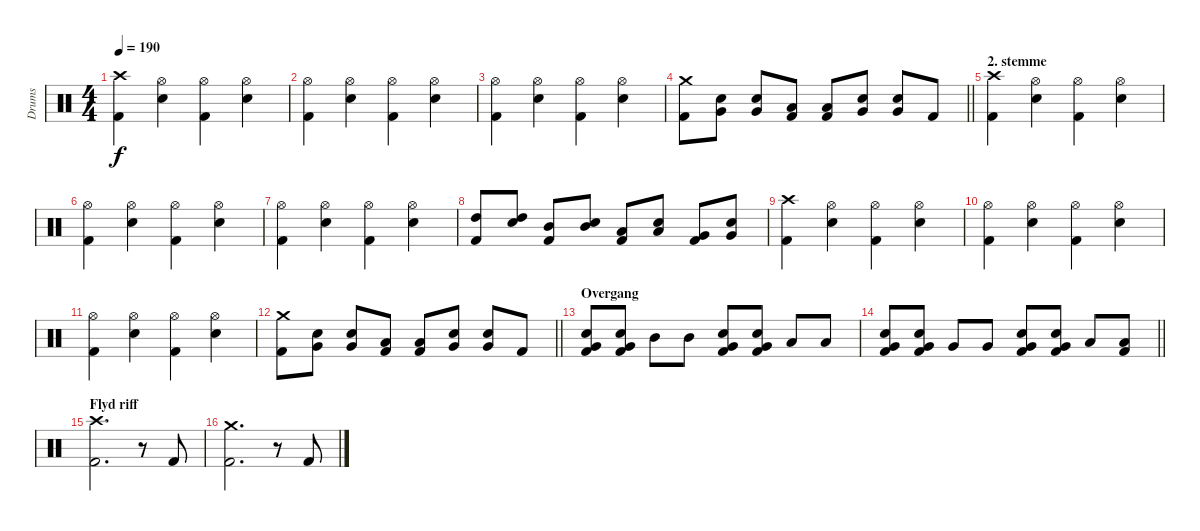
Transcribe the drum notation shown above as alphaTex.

\track ("Drums" "Drums") {instrument percussion}
\staff {score}
\articulation defaults
\ts (4 4)
\tempo 190
\clef neutral
\ks c
("Crash high (hit)" "Kick (hit) 2").4{dy f} ("Hi-Hat (open)" "Snare (hit) 2").4 ("Hi-Hat (open)" "Kick (hit) 2").4 ("Hi-Hat (open)" "Snare (hit) 2").4 |
("Hi-Hat (open)" "Kick (hit) 2").4 ("Hi-Hat (open)" "Snare (hit) 2").4 ("Hi-Hat (open)" "Kick (hit) 2").4 ("Hi-Hat (open)" "Snare (hit) 2").4 |
("Hi-Hat (open)" "Kick (hit) 2").4 ("Hi-Hat (open)" "Snare (hit) 2").4 ("Hi-Hat (open)" "Kick (hit) 2").4 ("Hi-Hat (open)" "Snare (hit) 2").4 |
\barLineRight lightlight
("Crash medium (hit)" "Kick (hit) 2").8 ("Very Low Tom (hit)" "Snare (hit) 2").8 ("Very Low Tom (hit)" "Snare (hit) 2").8 ("Low Floor Tom (hit)" "Kick (hit) 2").8 ("Low Floor Tom (hit)" "Kick (hit) 2").8 ("Very Low Tom (hit)" "Snare (hit) 2").8 ("Very Low Tom (hit)" "Snare (hit) 2").8 "Kick (hit) 2".8 |
\section ("" "2. stemme")
("Crash high (hit)" "Kick (hit) 2").4 ("Hi-Hat (open)" "Snare (hit) 2").4 ("Hi-Hat (open)" "Kick (hit) 2").4 ("Hi-Hat (open)" "Snare (hit) 2").4 |
("Hi-Hat (open)" "Kick (hit) 2").4 ("Hi-Hat (open)" "Snare (hit) 2").4 ("Hi-Hat (open)" "Kick (hit) 2").4 ("Hi-Hat (open)" "Snare (hit) 2").4 |
("Hi-Hat (open)" "Kick (hit) 2").4 ("Hi-Hat (open)" "Snare (hit) 2").4 ("Hi-Hat (open)" "Kick (hit) 2").4 ("Hi-Hat (open)" "Snare (hit) 2").4 |
("High Tom (hit)" "Kick (hit) 2").8 ("High Tom (hit)" "Snare (hit) 2").8 ("Mid Tom (hit)" "Kick (hit) 2").8 ("Mid Tom (hit)" "Snare (hit) 2").8 ("Low Tom (hit)" "Kick (hit) 2").8 ("Low Tom (hit)" "Snare (hit) 2").8 ("Very Low Tom (hit)" "Kick (hit) 2").8 ("Very Low Tom (hit)" "Snare (hit) 2").8 |
("Crash high (hit)" "Kick (hit) 2").4 ("Hi-Hat (open)" "Snare (hit) 2").4 ("Hi-Hat (open)" "Kick (hit) 2").4 ("Hi-Hat (open)" "Snare (hit) 2").4 |
("Hi-Hat (open)" "Kick (hit) 2").4 ("Hi-Hat (open)" "Snare (hit) 2").4 ("Hi-Hat (open)" "Kick (hit) 2").4 ("Hi-Hat (open)" "Snare (hit) 2").4 |
("Hi-Hat (open)" "Kick (hit) 2").4 ("Hi-Hat (open)" "Snare (hit) 2").4 ("Hi-Hat (open)" "Kick (hit) 2").4 ("Hi-Hat (open)" "Snare (hit) 2").4 |
\barLineRight lightlight
("Crash medium (hit)" "Kick (hit) 2").8 ("Very Low Tom (hit)" "Snare (hit) 2").8 ("Very Low Tom (hit)" "Snare (hit) 2").8 ("Low Floor Tom (hit)" "Kick (hit) 2").8 ("Low Floor Tom (hit)" "Kick (hit) 2").8 ("Very Low Tom (hit)" "Snare (hit) 2").8 ("Very Low Tom (hit)" "Snare (hit) 2").8 "Kick (hit) 2".8 |
\section ("" "Overgang")
("Very Low Tom (hit)" "Snare (hit) 2" "Kick (hit) 2").8 ("Very Low Tom (hit)" "Snare (hit) 2" "Kick (hit) 2").8 "Mid Tom (hit)".8 "Mid Tom (hit)".8 ("Very Low Tom (hit)" "Snare (hit) 2" "Kick (hit) 2").8 ("Very Low Tom (hit)" "Snare (hit) 2" "Kick (hit) 2").8 "Low Tom (hit)".8 "Low Tom (hit)".8 |
\barLineRight lightlight
("Very Low Tom (hit)" "Snare (hit) 2" "Kick (hit) 2").8 ("Very Low Tom (hit)" "Snare (hit) 2" "Kick (hit) 2").8 "Very Low Tom (hit)".8 "Very Low Tom (hit)".8 ("Very Low Tom (hit)" "Snare (hit) 2" "Kick (hit) 2").8 ("Very Low Tom (hit)" "Snare (hit) 2" "Kick (hit) 2").8 "Low Floor Tom (hit)".8 ("Low Floor Tom (hit)" "Kick (hit) 2").8 |
\section ("" "Flyd riff")
("Crash high (hit)" "Kick (hit) 2").2{d} r.8 "Kick (hit) 2".8 |
("Crash medium (hit)" "Kick (hit) 2").2{d} r.8 "Kick (hit) 2".8
